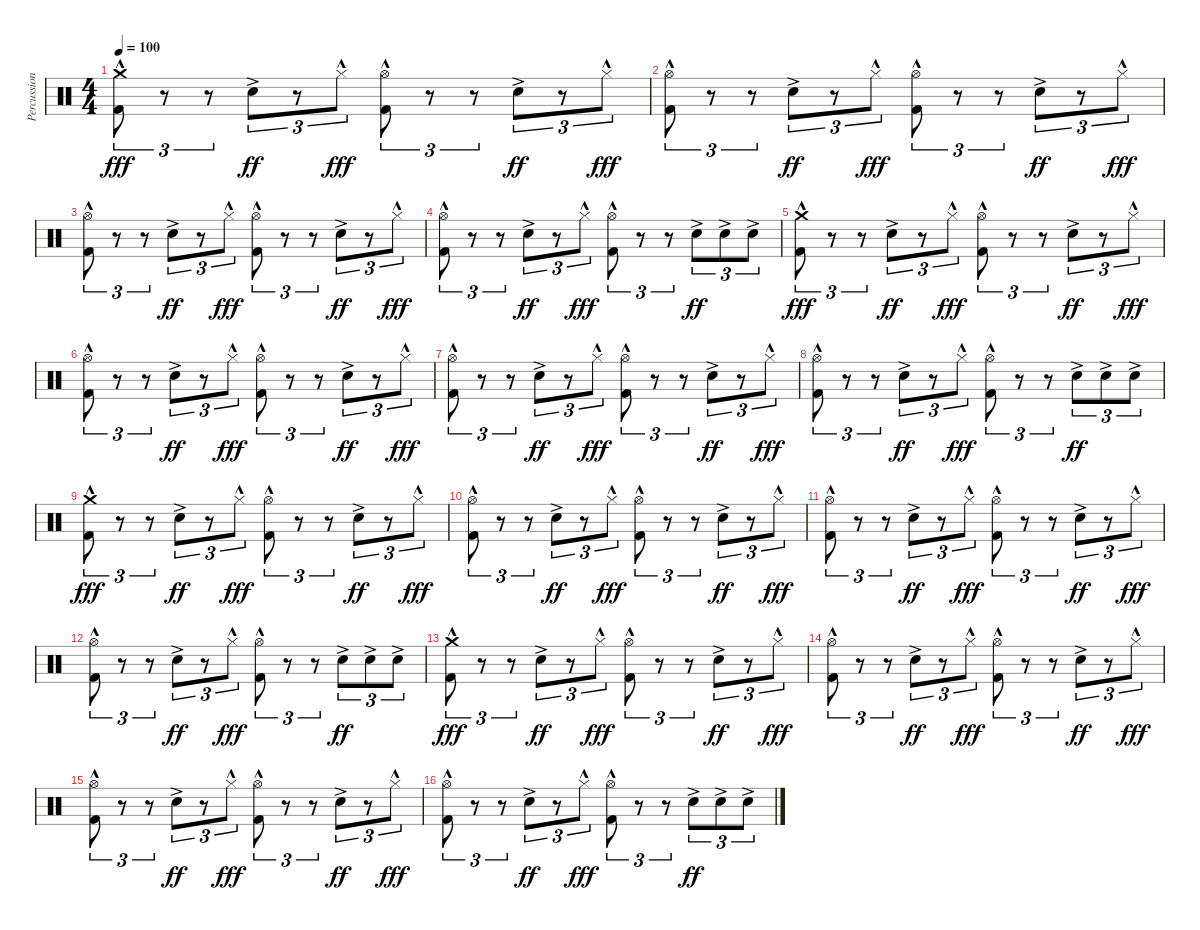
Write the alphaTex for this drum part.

\track ("Percussion" "Percussion") {instrument percussion}
\staff {score}
\articulation defaults
\ts (4 4)
\tempo 100
\clef neutral
\ks c
("Crash medium (hit)"{hac} "Kick (hit) 2"{hac}).8{tu (3 2) dy fff} r.8{tu (3 2)} r.8{tu (3 2)} "Snare (hit) 2"{ac}.8{tu (3 2) dy ff} r.8{tu (3 2)} "Hi-Hat (closed)"{hac}.8{tu (3 2) dy fff} ("Hi-Hat (open)"{hac} "Kick (hit) 2"{hac}).8{tu (3 2)} r.8{tu (3 2)} r.8{tu (3 2)} "Snare (hit) 2"{ac}.8{tu (3 2) dy ff} r.8{tu (3 2)} "Hi-Hat (closed)"{hac}.8{tu (3 2) dy fff} |
("Hi-Hat (open)"{hac} "Kick (hit) 2"{hac}).8{tu (3 2)} r.8{tu (3 2)} r.8{tu (3 2)} "Snare (hit) 2"{ac}.8{tu (3 2) dy ff} r.8{tu (3 2)} "Hi-Hat (closed)"{hac}.8{tu (3 2) dy fff} ("Hi-Hat (open)"{hac} "Kick (hit) 2"{hac}).8{tu (3 2)} r.8{tu (3 2)} r.8{tu (3 2)} "Snare (hit) 2"{ac}.8{tu (3 2) dy ff} r.8{tu (3 2)} "Hi-Hat (closed)"{hac}.8{tu (3 2) dy fff} |
("Hi-Hat (open)"{hac} "Kick (hit) 2"{hac}).8{tu (3 2)} r.8{tu (3 2)} r.8{tu (3 2)} "Snare (hit) 2"{ac}.8{tu (3 2) dy ff} r.8{tu (3 2)} "Hi-Hat (closed)"{hac}.8{tu (3 2) dy fff} ("Hi-Hat (open)"{hac} "Kick (hit) 2"{hac}).8{tu (3 2)} r.8{tu (3 2)} r.8{tu (3 2)} "Snare (hit) 2"{ac}.8{tu (3 2) dy ff} r.8{tu (3 2)} "Hi-Hat (closed)"{hac}.8{tu (3 2) dy fff} |
("Hi-Hat (open)"{hac} "Kick (hit) 2"{hac}).8{tu (3 2)} r.8{tu (3 2)} r.8{tu (3 2)} "Snare (hit) 2"{ac}.8{tu (3 2) dy ff} r.8{tu (3 2)} "Hi-Hat (closed)"{hac}.8{tu (3 2) dy fff} ("Hi-Hat (open)"{hac} "Kick (hit) 2"{hac}).8{tu (3 2)} r.8{tu (3 2)} r.8{tu (3 2)} "Snare (hit) 2"{ac}.8{tu (3 2) dy ff} "Snare (hit) 2"{ac}.8{tu (3 2)} "Snare (hit) 2"{ac}.8{tu (3 2)} |
("Crash medium (hit)"{hac} "Kick (hit) 2"{hac}).8{tu (3 2) dy fff} r.8{tu (3 2)} r.8{tu (3 2)} "Snare (hit) 2"{ac}.8{tu (3 2) dy ff} r.8{tu (3 2)} "Hi-Hat (closed)"{hac}.8{tu (3 2) dy fff} ("Hi-Hat (open)"{hac} "Kick (hit) 2"{hac}).8{tu (3 2)} r.8{tu (3 2)} r.8{tu (3 2)} "Snare (hit) 2"{ac}.8{tu (3 2) dy ff} r.8{tu (3 2)} "Hi-Hat (closed)"{hac}.8{tu (3 2) dy fff} |
("Hi-Hat (open)"{hac} "Kick (hit) 2"{hac}).8{tu (3 2)} r.8{tu (3 2)} r.8{tu (3 2)} "Snare (hit) 2"{ac}.8{tu (3 2) dy ff} r.8{tu (3 2)} "Hi-Hat (closed)"{hac}.8{tu (3 2) dy fff} ("Hi-Hat (open)"{hac} "Kick (hit) 2"{hac}).8{tu (3 2)} r.8{tu (3 2)} r.8{tu (3 2)} "Snare (hit) 2"{ac}.8{tu (3 2) dy ff} r.8{tu (3 2)} "Hi-Hat (closed)"{hac}.8{tu (3 2) dy fff} |
("Hi-Hat (open)"{hac} "Kick (hit) 2"{hac}).8{tu (3 2)} r.8{tu (3 2)} r.8{tu (3 2)} "Snare (hit) 2"{ac}.8{tu (3 2) dy ff} r.8{tu (3 2)} "Hi-Hat (closed)"{hac}.8{tu (3 2) dy fff} ("Hi-Hat (open)"{hac} "Kick (hit) 2"{hac}).8{tu (3 2)} r.8{tu (3 2)} r.8{tu (3 2)} "Snare (hit) 2"{ac}.8{tu (3 2) dy ff} r.8{tu (3 2)} "Hi-Hat (closed)"{hac}.8{tu (3 2) dy fff} |
("Hi-Hat (open)"{hac} "Kick (hit) 2"{hac}).8{tu (3 2)} r.8{tu (3 2)} r.8{tu (3 2)} "Snare (hit) 2"{ac}.8{tu (3 2) dy ff} r.8{tu (3 2)} "Hi-Hat (closed)"{hac}.8{tu (3 2) dy fff} ("Hi-Hat (open)"{hac} "Kick (hit) 2"{hac}).8{tu (3 2)} r.8{tu (3 2)} r.8{tu (3 2)} "Snare (hit) 2"{ac}.8{tu (3 2) dy ff} "Snare (hit) 2"{ac}.8{tu (3 2)} "Snare (hit) 2"{ac}.8{tu (3 2)} |
("Crash medium (hit)"{hac} "Kick (hit) 2"{hac}).8{tu (3 2) dy fff} r.8{tu (3 2)} r.8{tu (3 2)} "Snare (hit) 2"{ac}.8{tu (3 2) dy ff} r.8{tu (3 2)} "Hi-Hat (closed)"{hac}.8{tu (3 2) dy fff} ("Hi-Hat (open)"{hac} "Kick (hit) 2"{hac}).8{tu (3 2)} r.8{tu (3 2)} r.8{tu (3 2)} "Snare (hit) 2"{ac}.8{tu (3 2) dy ff} r.8{tu (3 2)} "Hi-Hat (closed)"{hac}.8{tu (3 2) dy fff} |
("Hi-Hat (open)"{hac} "Kick (hit) 2"{hac}).8{tu (3 2)} r.8{tu (3 2)} r.8{tu (3 2)} "Snare (hit) 2"{ac}.8{tu (3 2) dy ff} r.8{tu (3 2)} "Hi-Hat (closed)"{hac}.8{tu (3 2) dy fff} ("Hi-Hat (open)"{hac} "Kick (hit) 2"{hac}).8{tu (3 2)} r.8{tu (3 2)} r.8{tu (3 2)} "Snare (hit) 2"{ac}.8{tu (3 2) dy ff} r.8{tu (3 2)} "Hi-Hat (closed)"{hac}.8{tu (3 2) dy fff} |
("Hi-Hat (open)"{hac} "Kick (hit) 2"{hac}).8{tu (3 2)} r.8{tu (3 2)} r.8{tu (3 2)} "Snare (hit) 2"{ac}.8{tu (3 2) dy ff} r.8{tu (3 2)} "Hi-Hat (closed)"{hac}.8{tu (3 2) dy fff} ("Hi-Hat (open)"{hac} "Kick (hit) 2"{hac}).8{tu (3 2)} r.8{tu (3 2)} r.8{tu (3 2)} "Snare (hit) 2"{ac}.8{tu (3 2) dy ff} r.8{tu (3 2)} "Hi-Hat (closed)"{hac}.8{tu (3 2) dy fff} |
("Hi-Hat (open)"{hac} "Kick (hit) 2"{hac}).8{tu (3 2)} r.8{tu (3 2)} r.8{tu (3 2)} "Snare (hit) 2"{ac}.8{tu (3 2) dy ff} r.8{tu (3 2)} "Hi-Hat (closed)"{hac}.8{tu (3 2) dy fff} ("Hi-Hat (open)"{hac} "Kick (hit) 2"{hac}).8{tu (3 2)} r.8{tu (3 2)} r.8{tu (3 2)} "Snare (hit) 2"{ac}.8{tu (3 2) dy ff} "Snare (hit) 2"{ac}.8{tu (3 2)} "Snare (hit) 2"{ac}.8{tu (3 2)} |
("Crash medium (hit)"{hac} "Kick (hit) 2"{hac}).8{tu (3 2) dy fff} r.8{tu (3 2)} r.8{tu (3 2)} "Snare (hit) 2"{ac}.8{tu (3 2) dy ff} r.8{tu (3 2)} "Hi-Hat (closed)"{hac}.8{tu (3 2) dy fff} ("Hi-Hat (open)"{hac} "Kick (hit) 2"{hac}).8{tu (3 2)} r.8{tu (3 2)} r.8{tu (3 2)} "Snare (hit) 2"{ac}.8{tu (3 2) dy ff} r.8{tu (3 2)} "Hi-Hat (closed)"{hac}.8{tu (3 2) dy fff} |
("Hi-Hat (open)"{hac} "Kick (hit) 2"{hac}).8{tu (3 2)} r.8{tu (3 2)} r.8{tu (3 2)} "Snare (hit) 2"{ac}.8{tu (3 2) dy ff} r.8{tu (3 2)} "Hi-Hat (closed)"{hac}.8{tu (3 2) dy fff} ("Hi-Hat (open)"{hac} "Kick (hit) 2"{hac}).8{tu (3 2)} r.8{tu (3 2)} r.8{tu (3 2)} "Snare (hit) 2"{ac}.8{tu (3 2) dy ff} r.8{tu (3 2)} "Hi-Hat (closed)"{hac}.8{tu (3 2) dy fff} |
("Hi-Hat (open)"{hac} "Kick (hit) 2"{hac}).8{tu (3 2)} r.8{tu (3 2)} r.8{tu (3 2)} "Snare (hit) 2"{ac}.8{tu (3 2) dy ff} r.8{tu (3 2)} "Hi-Hat (closed)"{hac}.8{tu (3 2) dy fff} ("Hi-Hat (open)"{hac} "Kick (hit) 2"{hac}).8{tu (3 2)} r.8{tu (3 2)} r.8{tu (3 2)} "Snare (hit) 2"{ac}.8{tu (3 2) dy ff} r.8{tu (3 2)} "Hi-Hat (closed)"{hac}.8{tu (3 2) dy fff} |
("Hi-Hat (open)"{hac} "Kick (hit) 2"{hac}).8{tu (3 2)} r.8{tu (3 2)} r.8{tu (3 2)} "Snare (hit) 2"{ac}.8{tu (3 2) dy ff} r.8{tu (3 2)} "Hi-Hat (closed)"{hac}.8{tu (3 2) dy fff} ("Hi-Hat (open)"{hac} "Kick (hit) 2"{hac}).8{tu (3 2)} r.8{tu (3 2)} r.8{tu (3 2)} "Snare (hit) 2"{ac}.8{tu (3 2) dy ff} "Snare (hit) 2"{ac}.8{tu (3 2)} "Snare (hit) 2"{ac}.8{tu (3 2)}
